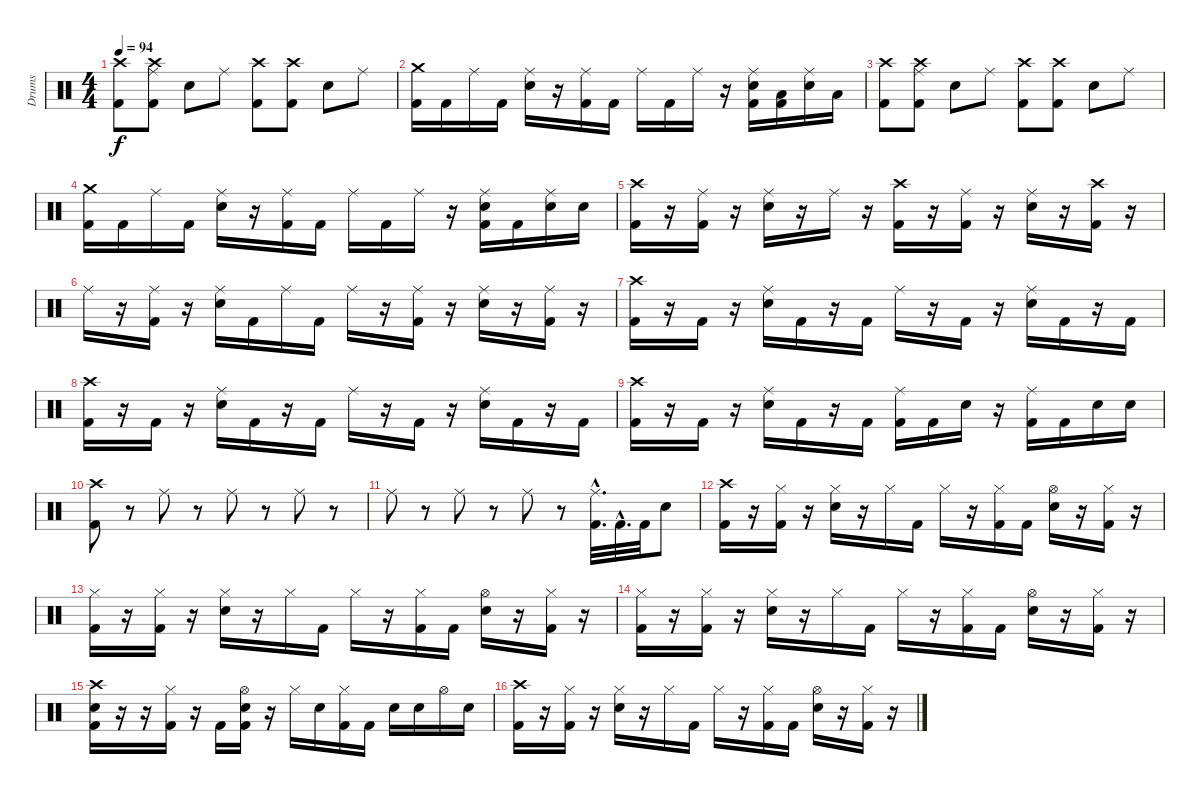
\track ("Drums" "Drums") {instrument percussion}
\staff {score}
\articulation defaults
\ts (4 4)
\tempo 94
\clef neutral
\ks c
("Crash high (hit)" "Kick (hit) 2").8{dy f} ("Crash high (hit)" "Ride (middle)" "Kick (hit) 2").8 "Snare (hit) 2".8 "Ride (middle)".8 ("Crash high (hit)" "Kick (hit) 2").8 ("Crash high (hit)" "Kick (hit) 2").8 "Snare (hit) 2".8 "Ride (middle)".8 |
("Crash medium (hit)" "Kick (hit) 2").16 "Kick (hit) 2".16 "Ride (middle)".16 "Kick (hit) 2".16 ("Snare (hit) 2" "Ride (middle)").16 r.16 ("Ride (middle)" "Kick (hit) 2").16 "Kick (hit) 2".16 "Ride (middle)".16 "Kick (hit) 2".16 "Ride (middle)".16 r.16 ("Snare (hit) 2" "Ride (middle)" "Kick (hit) 2").16 ("Low Tom (hit)" "Kick (hit) 2").16 ("Snare (hit) 2" "Ride (middle)").16 "Low Floor Tom (hit)".16 |
("Crash high (hit)" "Kick (hit) 2").8 ("Crash high (hit)" "Ride (middle)" "Kick (hit) 2").8 "Snare (hit) 2".8 "Ride (middle)".8 ("Crash high (hit)" "Kick (hit) 2").8 ("Crash high (hit)" "Kick (hit) 2").8 "Snare (hit) 2".8 "Ride (middle)".8 |
("Crash medium (hit)" "Kick (hit) 2").16 "Kick (hit) 2".16 "Ride (middle)".16 "Kick (hit) 2".16 ("Snare (hit) 2" "Ride (middle)").16 r.16 ("Ride (middle)" "Kick (hit) 2").16 "Kick (hit) 2".16 "Ride (middle)".16 "Kick (hit) 2".16 "Ride (middle)".16 r.16 ("Snare (hit) 2" "Ride (middle)" "Kick (hit) 2").16 "Kick (hit) 2".16 ("Snare (hit) 2" "Ride (middle)").16 "Snare (hit) 2".16 |
("Crash high (hit)" "Kick (hit) 2").16 r.16 ("Ride (middle)" "Kick (hit) 2").16 r.16 ("Snare (hit) 2" "Ride (middle)").16 r.16 "Ride (middle)".16 r.16 ("Crash high (hit)" "Kick (hit) 2").16 r.16 ("Ride (middle)" "Kick (hit) 2").16 r.16 ("Snare (hit) 2" "Ride (middle)").16 r.16 ("Crash high (hit)" "Kick (hit) 2").16 r.16 |
"Ride (middle)".16 r.16 ("Ride (middle)" "Kick (hit) 2").16 r.16 ("Ride (middle)" "Snare (hit) 2").16 "Kick (hit) 2".16 "Ride (middle)".16 "Kick (hit) 2".16 "Ride (middle)".16 r.16 ("Ride (middle)" "Kick (hit) 2").16 r.16 ("Ride (middle)" "Snare (hit) 2").16 r.16 ("Ride (middle)" "Kick (hit) 2").16 r.16 |
("Crash high (hit)" "Kick (hit) 2").16 r.16 "Kick (hit) 2".16 r.16 ("Ride (middle)" "Snare (hit) 2").16 "Kick (hit) 2".16 r.16 "Kick (hit) 2".16 "Ride (middle)".16 r.16 "Kick (hit) 2".16 r.16 ("Ride (middle)" "Snare (hit) 2").16 "Kick (hit) 2".16 r.16 "Kick (hit) 2".16 |
("Crash high (hit)" "Kick (hit) 2").16 r.16 "Kick (hit) 2".16 r.16 ("Ride (middle)" "Snare (hit) 2").16 "Kick (hit) 2".16 r.16 "Kick (hit) 2".16 "Ride (middle)".16 r.16 "Kick (hit) 2".16 r.16 ("Ride (middle)" "Snare (hit) 2").16 "Kick (hit) 2".16 r.16 "Kick (hit) 2".16 |
("Crash high (hit)" "Kick (hit) 2").16 r.16 "Kick (hit) 2".16 r.16 ("Ride (middle)" "Snare (hit) 2").16 "Kick (hit) 2".16 r.16 "Kick (hit) 2".16 ("Ride (middle)" "Kick (hit) 2").16 "Kick (hit) 2".16 "Snare (hit) 2".16 r.16 ("Ride (middle)" "Kick (hit) 2").16 "Kick (hit) 2".16 "Snare (hit) 2".16 "Snare (hit) 2".16 |
("Crash high (hit)" "Kick (hit) 2").8 r.8 "Ride (middle)".8 r.8 "Ride (middle)".8 r.8 "Ride (middle)".8 r.8 |
"Ride (middle)".8 r.8 "Ride (middle)".8 r.8 "Ride (middle)".8 r.8 ("Ride (middle)"{hac} "Kick (hit) 2"{hac}).32{d} "Kick (hit) 2"{hac}.32{d} "Kick (hit) 2".32 "Snare (hit) 2".8 |
("Crash high (hit)" "Kick (hit) 2").16 r.16 ("Hi-Hat (closed)" "Kick (hit) 2").16 r.16 ("Hi-Hat (closed)" "Snare (hit) 2").16 r.16 "Hi-Hat (closed)".16 "Kick (hit) 2".16 "Hi-Hat (closed)".16 r.16 ("Hi-Hat (closed)" "Kick (hit) 2").16 "Kick (hit) 2".16 ("Hi-Hat (open)" "Snare (hit) 2").16 r.16 ("Hi-Hat (closed)" "Kick (hit) 2").16 r.16 |
("Hi-Hat (closed)" "Kick (hit) 2").16 r.16 ("Hi-Hat (closed)" "Kick (hit) 2").16 r.16 ("Hi-Hat (closed)" "Snare (hit) 2").16 r.16 "Hi-Hat (closed)".16 "Kick (hit) 2".16 "Hi-Hat (closed)".16 r.16 ("Hi-Hat (closed)" "Kick (hit) 2").16 "Kick (hit) 2".16 ("Hi-Hat (open)" "Snare (hit) 2").16 r.16 ("Hi-Hat (closed)" "Kick (hit) 2").16 r.16 |
("Hi-Hat (closed)" "Kick (hit) 2").16 r.16 ("Hi-Hat (closed)" "Kick (hit) 2").16 r.16 ("Hi-Hat (closed)" "Snare (hit) 2").16 r.16 "Hi-Hat (closed)".16 "Kick (hit) 2".16 "Hi-Hat (closed)".16 r.16 ("Hi-Hat (closed)" "Kick (hit) 2").16 "Kick (hit) 2".16 ("Hi-Hat (open)" "Snare (hit) 2").16 r.16 ("Hi-Hat (closed)" "Kick (hit) 2").16 r.16 |
("Crash high (hit)" "Snare (hit) 2" "Kick (hit) 2").16 r.16 r.16 ("Hi-Hat (closed)" "Kick (hit) 2").16 r.16 "Kick (hit) 2".16 ("Hi-Hat (open)" "Snare (hit) 2" "Kick (hit) 2").16 r.16 "Hi-Hat (closed)".16 "Snare (hit) 2".16 ("Hi-Hat (closed)" "Kick (hit) 2").16 "Kick (hit) 2".16 "Snare (hit) 2".16 "Snare (hit) 2".16 "Hi-Hat (open)".16 "Snare (hit) 2".16 |
("Crash high (hit)" "Kick (hit) 2").16 r.16 ("Hi-Hat (closed)" "Kick (hit) 2").16 r.16 ("Hi-Hat (closed)" "Snare (hit) 2").16 r.16 "Hi-Hat (closed)".16 "Kick (hit) 2".16 "Hi-Hat (closed)".16 r.16 ("Hi-Hat (closed)" "Kick (hit) 2").16 "Kick (hit) 2".16 ("Hi-Hat (open)" "Snare (hit) 2").16 r.16 ("Hi-Hat (closed)" "Kick (hit) 2").16 r.16
